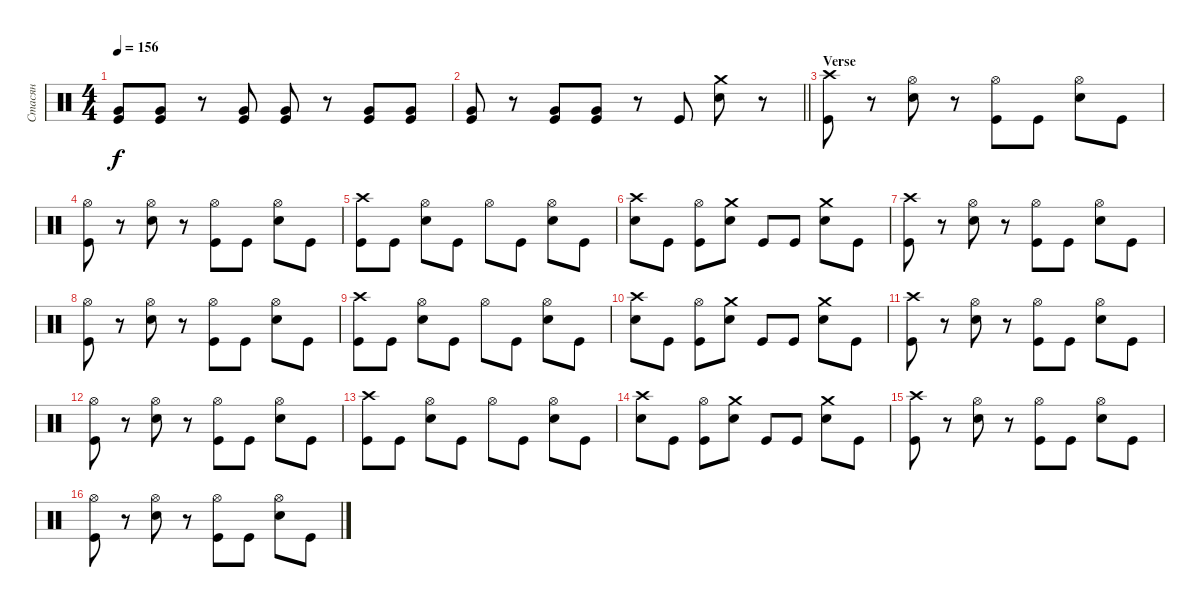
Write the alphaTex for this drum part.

\track ("Стасян" "Стасян") {instrument percussion}
\staff
\articulation defaults
\ts (4 4)
\tempo 156
\clef neutral
\ks c
("Kick (hit)" "Very Low Tom (hit)").8{dy f} ("Kick (hit)" "Very Low Tom (hit)").8 r.8 ("Kick (hit)" "Very Low Tom (hit)").8 ("Kick (hit)" "Very Low Tom (hit)").8 r.8 ("Kick (hit)" "Very Low Tom (hit)").8 ("Kick (hit)" "Very Low Tom (hit)").8 |
\barLineRight lightlight
("Kick (hit)" "Very Low Tom (hit)").8 r.8 ("Kick (hit)" "Very Low Tom (hit)").8 ("Kick (hit)" "Very Low Tom (hit)").8 r.8 "Kick (hit)".8 ("Snare (hit) 2" "Crash medium (hit)").8 r.8 |
\section ("" "Verse")
("Kick (hit)" "Crash high (hit)").8 r.8 ("Snare (hit) 2" "Hi-Hat (open)").8 r.8 ("Kick (hit)" "Hi-Hat (open)").8 "Kick (hit)".8 ("Snare (hit) 2" "Hi-Hat (open)").8 "Kick (hit)".8 |
("Kick (hit)" "Hi-Hat (open)").8 r.8 ("Snare (hit) 2" "Hi-Hat (open)").8 r.8 ("Hi-Hat (open)" "Kick (hit)").8 "Kick (hit)".8 ("Snare (hit) 2" "Hi-Hat (open)").8 "Kick (hit)".8 |
("Kick (hit)" "Crash high (hit)").8 "Kick (hit)".8 ("Hi-Hat (open)" "Snare (hit) 2").8 "Kick (hit)".8 "Hi-Hat (open)".8 "Kick (hit)".8 ("Hi-Hat (open)" "Snare (hit) 2").8 "Kick (hit)".8 |
("Crash high (hit)" "Snare (hit) 2").8 "Kick (hit)".8 ("Kick (hit)" "Hi-Hat (open)").8 ("Snare (hit) 2" "Crash medium (hit)").8 "Kick (hit)".8 "Kick (hit)".8 ("Snare (hit) 2" "Crash medium (hit)").8 "Kick (hit)".8 |
("Kick (hit)" "Crash high (hit)").8 r.8 ("Snare (hit) 2" "Hi-Hat (open)").8 r.8 ("Kick (hit)" "Hi-Hat (open)").8 "Kick (hit)".8 ("Snare (hit) 2" "Hi-Hat (open)").8 "Kick (hit)".8 |
("Kick (hit)" "Hi-Hat (open)").8 r.8 ("Snare (hit) 2" "Hi-Hat (open)").8 r.8 ("Hi-Hat (open)" "Kick (hit)").8 "Kick (hit)".8 ("Snare (hit) 2" "Hi-Hat (open)").8 "Kick (hit)".8 |
("Kick (hit)" "Crash high (hit)").8 "Kick (hit)".8 ("Hi-Hat (open)" "Snare (hit) 2").8 "Kick (hit)".8 "Hi-Hat (open)".8 "Kick (hit)".8 ("Hi-Hat (open)" "Snare (hit) 2").8 "Kick (hit)".8 |
("Crash high (hit)" "Snare (hit) 2").8 "Kick (hit)".8 ("Kick (hit)" "Hi-Hat (open)").8 ("Snare (hit) 2" "Crash medium (hit)").8 "Kick (hit)".8 "Kick (hit)".8 ("Snare (hit) 2" "Crash medium (hit)").8 "Kick (hit)".8 |
("Kick (hit)" "Crash high (hit)").8 r.8 ("Snare (hit) 2" "Hi-Hat (open)").8 r.8 ("Kick (hit)" "Hi-Hat (open)").8 "Kick (hit)".8 ("Snare (hit) 2" "Hi-Hat (open)").8 "Kick (hit)".8 |
("Kick (hit)" "Hi-Hat (open)").8 r.8 ("Snare (hit) 2" "Hi-Hat (open)").8 r.8 ("Hi-Hat (open)" "Kick (hit)").8 "Kick (hit)".8 ("Snare (hit) 2" "Hi-Hat (open)").8 "Kick (hit)".8 |
("Kick (hit)" "Crash high (hit)").8 "Kick (hit)".8 ("Hi-Hat (open)" "Snare (hit) 2").8 "Kick (hit)".8 "Hi-Hat (open)".8 "Kick (hit)".8 ("Hi-Hat (open)" "Snare (hit) 2").8 "Kick (hit)".8 |
("Crash high (hit)" "Snare (hit) 2").8 "Kick (hit)".8 ("Kick (hit)" "Hi-Hat (open)").8 ("Snare (hit) 2" "Crash medium (hit)").8 "Kick (hit)".8 "Kick (hit)".8 ("Snare (hit) 2" "Crash medium (hit)").8 "Kick (hit)".8 |
("Kick (hit)" "Crash high (hit)").8 r.8 ("Snare (hit) 2" "Hi-Hat (open)").8 r.8 ("Kick (hit)" "Hi-Hat (open)").8 "Kick (hit)".8 ("Snare (hit) 2" "Hi-Hat (open)").8 "Kick (hit)".8 |
("Kick (hit)" "Hi-Hat (open)").8 r.8 ("Snare (hit) 2" "Hi-Hat (open)").8 r.8 ("Hi-Hat (open)" "Kick (hit)").8 "Kick (hit)".8 ("Snare (hit) 2" "Hi-Hat (open)").8 "Kick (hit)".8
